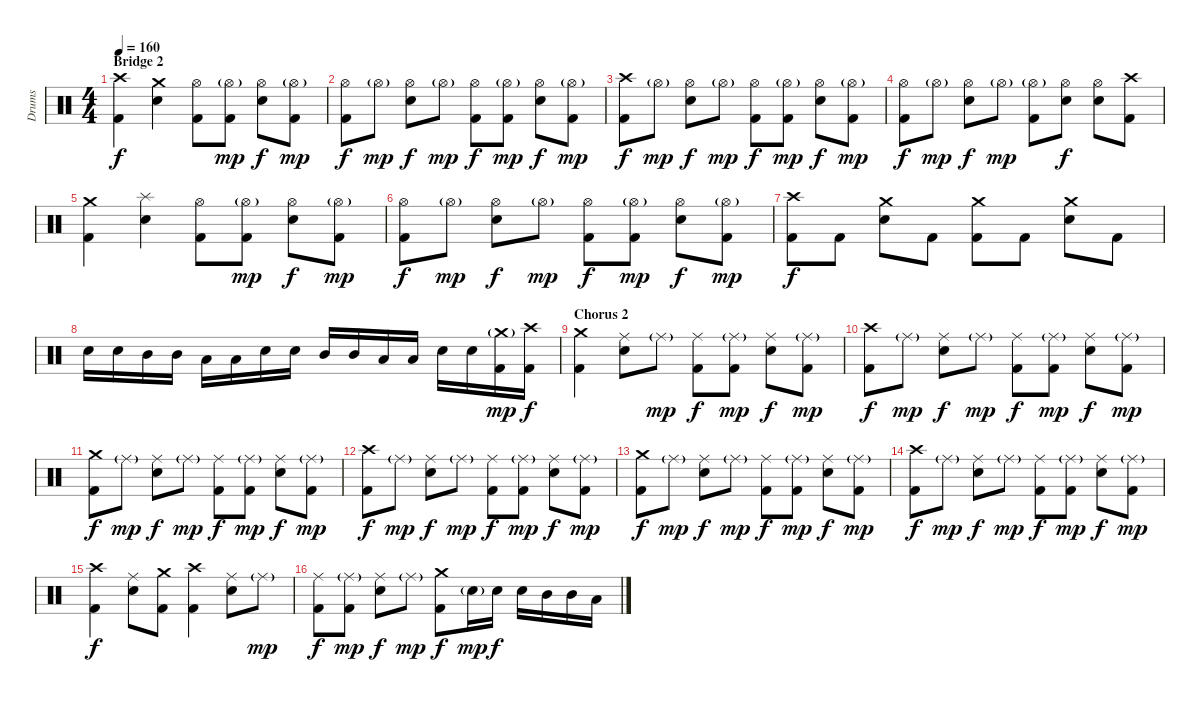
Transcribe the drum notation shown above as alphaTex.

\track ("Drums" "Drums") {instrument percussion}
\staff {score}
\articulation defaults
\ts (4 4)
\section ("" "Bridge 2")
\tempo 160
\clef neutral
\ks c
("Crash high (hit)" "Kick (hit) 2").4{dy f} ("Crash medium (hit)" "Snare (hit) 2").4 ("Hi-Hat (open)" "Kick (hit) 2").8 ("Hi-Hat (open)"{g} "Kick (hit) 2").8{dy mp} ("Hi-Hat (open)" "Snare (hit) 2").8{dy f} ("Hi-Hat (open)"{g} "Kick (hit) 2").8{dy mp} |
("Hi-Hat (open)" "Kick (hit) 2").8{dy f} "Hi-Hat (open)"{g}.8{dy mp} ("Hi-Hat (open)" "Snare (hit) 2").8{dy f} "Hi-Hat (open)"{g}.8{dy mp} ("Hi-Hat (open)" "Kick (hit) 2").8{dy f} ("Hi-Hat (open)"{g} "Kick (hit) 2").8{dy mp} ("Hi-Hat (open)" "Snare (hit) 2").8{dy f} ("Hi-Hat (open)"{g} "Kick (hit) 2").8{dy mp} |
("Crash high (hit)" "Kick (hit) 2").8{dy f} "Hi-Hat (open)"{g}.8{dy mp} ("Hi-Hat (open)" "Snare (hit) 2").8{dy f} "Hi-Hat (open)"{g}.8{dy mp} ("Hi-Hat (open)" "Kick (hit) 2").8{dy f} ("Hi-Hat (open)"{g} "Kick (hit) 2").8{dy mp} ("Hi-Hat (open)" "Snare (hit) 2").8{dy f} ("Hi-Hat (open)"{g} "Kick (hit) 2").8{dy mp} |
("Hi-Hat (open)" "Kick (hit) 2").8{dy f} "Hi-Hat (open)"{g}.8{dy mp} ("Hi-Hat (open)" "Snare (hit) 2").8{dy f} "Hi-Hat (open)"{g}.8{dy mp} ("Hi-Hat (open)"{g} "Kick (hit) 2").8 ("Hi-Hat (open)" "Snare (hit) 2").8{dy f} ("Hi-Hat (open)" "Snare (hit) 2").8 ("Crash high (hit)" "Kick (hit) 2").8 |
("Crash medium (hit)" "Kick (hit) 2").4 ("Splash (hit)" "Snare (hit) 2").4 ("Hi-Hat (open)" "Kick (hit) 2").8 ("Hi-Hat (open)"{g} "Kick (hit) 2").8{dy mp} ("Hi-Hat (open)" "Snare (hit) 2").8{dy f} ("Hi-Hat (open)"{g} "Kick (hit) 2").8{dy mp} |
("Hi-Hat (open)" "Kick (hit) 2").8{dy f} "Hi-Hat (open)"{g}.8{dy mp} ("Hi-Hat (open)" "Snare (hit) 2").8{dy f} "Hi-Hat (open)"{g}.8{dy mp} ("Hi-Hat (open)" "Kick (hit) 2").8{dy f} ("Hi-Hat (open)"{g} "Kick (hit) 2").8{dy mp} ("Hi-Hat (open)" "Snare (hit) 2").8{dy f} ("Hi-Hat (open)"{g} "Kick (hit) 2").8{dy mp} |
("Crash high (hit)" "Kick (hit) 2").8{dy f} "Kick (hit) 2".8 ("Crash medium (hit)" "Snare (hit) 2").8 "Kick (hit) 2".8 ("Crash medium (hit)" "Kick (hit) 2").8 "Kick (hit) 2".8 ("Crash medium (hit)" "Snare (hit) 2").8 "Kick (hit) 2".8 |
"Snare (hit) 2".16 "Snare (hit) 2".16 "Mid Tom (hit)".16 "Mid Tom (hit)".16 "Low Tom (hit)".16 "Low Tom (hit)".16 "Snare (hit) 2".16 "Snare (hit) 2".16 "Mid Tom (hit)".16 "Mid Tom (hit)".16 "Low Tom (hit)".16 "Low Tom (hit)".16 "Snare (hit) 2".16 "Snare (hit) 2".16 ("Crash medium (hit)"{g} "Kick (hit) 2").16{dy mp} ("Crash high (hit)" "Kick (hit) 2").16{dy f} |
\section ("" "Chorus 2")
("Crash medium (hit)" "Kick (hit) 2").4 ("Ride (middle)" "Snare (hit) 2").8 "Ride (middle)"{g}.8{dy mp} ("Ride (middle)" "Kick (hit) 2").8{dy f} ("Ride (middle)"{g} "Kick (hit) 2").8{dy mp} ("Ride (middle)" "Snare (hit) 2").8{dy f} ("Ride (middle)"{g} "Kick (hit) 2").8{dy mp} |
("Crash high (hit)" "Kick (hit) 2").8{dy f} "Ride (middle)"{g}.8{dy mp} ("Ride (middle)" "Snare (hit) 2").8{dy f} "Ride (middle)"{g}.8{dy mp} ("Ride (middle)" "Kick (hit) 2").8{dy f} ("Ride (middle)"{g} "Kick (hit) 2").8{dy mp} ("Ride (middle)" "Snare (hit) 2").8{dy f} ("Ride (middle)"{g} "Kick (hit) 2").8{dy mp} |
("Crash medium (hit)" "Kick (hit) 2").8{dy f} "Ride (middle)"{g}.8{dy mp} ("Ride (middle)" "Snare (hit) 2").8{dy f} "Ride (middle)"{g}.8{dy mp} ("Ride (middle)" "Kick (hit) 2").8{dy f} ("Ride (middle)"{g} "Kick (hit) 2").8{dy mp} ("Ride (middle)" "Snare (hit) 2").8{dy f} ("Ride (middle)"{g} "Kick (hit) 2").8{dy mp} |
("Crash high (hit)" "Kick (hit) 2").8{dy f} "Ride (middle)"{g}.8{dy mp} ("Ride (middle)" "Snare (hit) 2").8{dy f} "Ride (middle)"{g}.8{dy mp} ("Ride (middle)" "Kick (hit) 2").8{dy f} ("Ride (middle)"{g} "Kick (hit) 2").8{dy mp} ("Ride (middle)" "Snare (hit) 2").8{dy f} ("Ride (middle)"{g} "Kick (hit) 2").8{dy mp} |
("Crash medium (hit)" "Kick (hit) 2").8{dy f} "Ride (middle)"{g}.8{dy mp} ("Ride (middle)" "Snare (hit) 2").8{dy f} "Ride (middle)"{g}.8{dy mp} ("Ride (middle)" "Kick (hit) 2").8{dy f} ("Ride (middle)"{g} "Kick (hit) 2").8{dy mp} ("Ride (middle)" "Snare (hit) 2").8{dy f} ("Ride (middle)"{g} "Kick (hit) 2").8{dy mp} |
("Crash high (hit)" "Kick (hit) 2").8{dy f} "Ride (middle)"{g}.8{dy mp} ("Ride (middle)" "Snare (hit) 2").8{dy f} "Ride (middle)"{g}.8{dy mp} ("Ride (middle)" "Kick (hit) 2").8{dy f} ("Ride (middle)"{g} "Kick (hit) 2").8{dy mp} ("Ride (middle)" "Snare (hit) 2").8{dy f} ("Ride (middle)"{g} "Kick (hit) 2").8{dy mp} |
("Crash high (hit)" "Kick (hit) 2").4{dy f} ("Ride (middle)" "Snare (hit) 2").8 ("Crash medium (hit)" "Kick (hit) 2").8 ("Crash high (hit)" "Kick (hit) 2").4 ("Ride (middle)" "Snare (hit) 2").8 "Ride (middle)"{g}.8{dy mp} |
("Ride (middle)" "Kick (hit) 2").8{dy f} ("Ride (middle)"{g} "Kick (hit) 2").8{dy mp} ("Ride (middle)" "Snare (hit) 2").8{dy f} "Ride (middle)"{g}.8{dy mp} ("Crash medium (hit)" "Kick (hit) 2").8{dy f} "Snare (hit) 2"{g}.16{dy mp} "Snare (hit) 2".16{dy f} "Snare (hit) 2".16 "Mid Tom (hit)".16 "Mid Tom (hit)".16 "Low Tom (hit)".16
